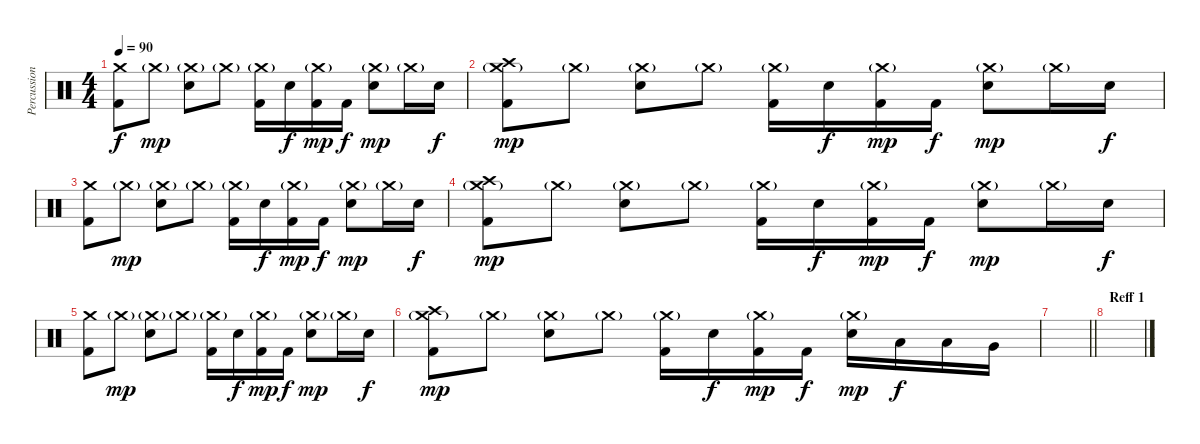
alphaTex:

\track ("Percussion" "Percussion") {instrument percussion}
\staff {score}
\articulation defaults
\ts (4 4)
\tempo 90
\clef neutral
\ks c
("Crash medium (hit)" "Kick (hit) 2").8{dy f} "Crash medium (hit)"{g}.8{dy mp} ("Crash medium (hit)"{g} "Electric Snare (hit)").8 "Crash medium (hit)"{g}.8 ("Crash medium (hit)"{g} "Kick (hit) 2").16 "Electric Snare (hit)".16{dy f} ("Crash medium (hit)"{g} "Kick (hit) 2").16{dy mp} "Kick (hit) 2".16{dy f} ("Crash medium (hit)"{g} "Electric Snare (hit)").8{dy mp} "Crash medium (hit)"{g}.16 "Electric Snare (hit)".16{dy f} |
("Crash medium (hit)"{g} "Crash high (hit)" "Kick (hit) 2").8{dy mp} "Crash medium (hit)"{g}.8 ("Crash medium (hit)"{g} "Electric Snare (hit)").8 "Crash medium (hit)"{g}.8 ("Crash medium (hit)"{g} "Kick (hit) 2").16 "Electric Snare (hit)".16{dy f} ("Crash medium (hit)"{g} "Kick (hit) 2").16{dy mp} "Kick (hit) 2".16{dy f} ("Crash medium (hit)"{g} "Electric Snare (hit)").8{dy mp} "Crash medium (hit)"{g}.16 "Electric Snare (hit)".16{dy f} |
("Crash medium (hit)" "Kick (hit) 2").8 "Crash medium (hit)"{g}.8{dy mp} ("Crash medium (hit)"{g} "Electric Snare (hit)").8 "Crash medium (hit)"{g}.8 ("Crash medium (hit)"{g} "Kick (hit) 2").16 "Electric Snare (hit)".16{dy f} ("Crash medium (hit)"{g} "Kick (hit) 2").16{dy mp} "Kick (hit) 2".16{dy f} ("Crash medium (hit)"{g} "Electric Snare (hit)").8{dy mp} "Crash medium (hit)"{g}.16 "Electric Snare (hit)".16{dy f} |
("Crash medium (hit)"{g} "Crash high (hit)" "Kick (hit) 2").8{dy mp} "Crash medium (hit)"{g}.8 ("Crash medium (hit)"{g} "Electric Snare (hit)").8 "Crash medium (hit)"{g}.8 ("Crash medium (hit)"{g} "Kick (hit) 2").16 "Electric Snare (hit)".16{dy f} ("Crash medium (hit)"{g} "Kick (hit) 2").16{dy mp} "Kick (hit) 2".16{dy f} ("Crash medium (hit)"{g} "Electric Snare (hit)").8{dy mp} "Crash medium (hit)"{g}.16 "Electric Snare (hit)".16{dy f} |
("Crash medium (hit)" "Kick (hit) 2").8 "Crash medium (hit)"{g}.8{dy mp} ("Crash medium (hit)"{g} "Electric Snare (hit)").8 "Crash medium (hit)"{g}.8 ("Crash medium (hit)"{g} "Kick (hit) 2").16 "Electric Snare (hit)".16{dy f} ("Crash medium (hit)"{g} "Kick (hit) 2").16{dy mp} "Kick (hit) 2".16{dy f} ("Crash medium (hit)"{g} "Electric Snare (hit)").8{dy mp} "Crash medium (hit)"{g}.16 "Electric Snare (hit)".16{dy f} |
("Crash medium (hit)"{g} "Crash high (hit)" "Kick (hit) 2").8{dy mp} "Crash medium (hit)"{g}.8 ("Crash medium (hit)"{g} "Electric Snare (hit)").8 "Crash medium (hit)"{g}.8 ("Crash medium (hit)"{g} "Kick (hit) 2").16 "Electric Snare (hit)".16{dy f} ("Crash medium (hit)"{g} "Kick (hit) 2").16{dy mp} "Kick (hit) 2".16{dy f} ("Crash medium (hit)"{g} "Electric Snare (hit)").16{dy mp} "Low Tom (hit)".16{dy f} "Low Tom (hit)".16 "Very Low Tom (hit)".16 |
\barLineRight lightlight
|
\section ("" "Reff 1")
